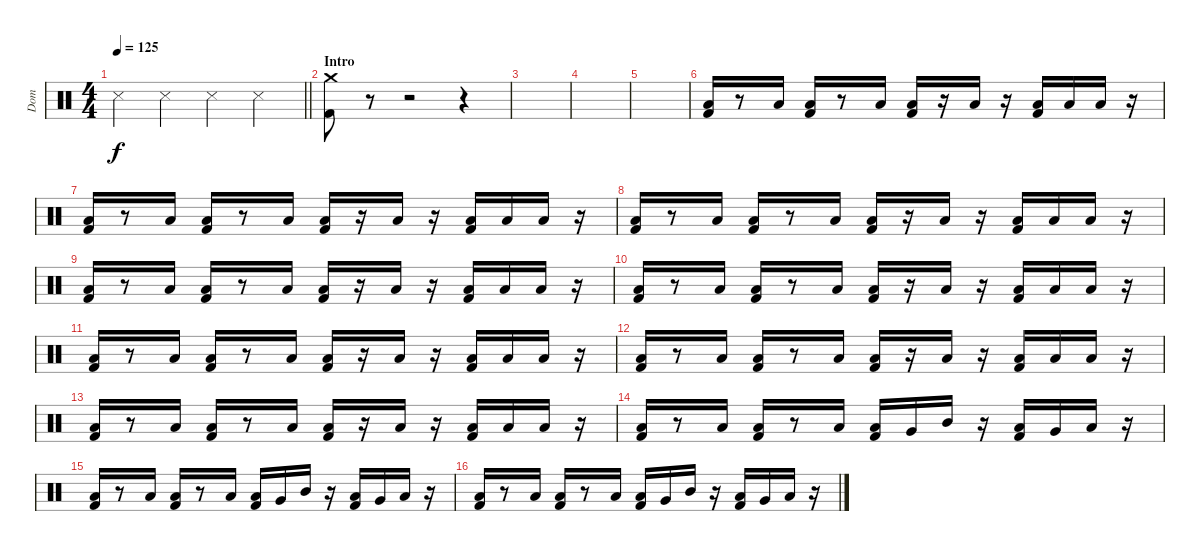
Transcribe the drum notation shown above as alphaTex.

\track ("Dom" "Dom") {instrument percussion}
\staff {score}
\articulation defaults
\ts (4 4)
\tempo 125
\clef neutral
\barLineRight lightlight
\ks c "Snare (side stick) 3".4{dy f} "Snare (side stick) 3".4 "Snare (side stick) 3".4 "Snare (side stick) 3".4
|
\section ("" "Intro")
("Crash medium (hit)" "Kick (hit) 2").8 r.8 r.2 r.4 |
|
|
|
("Low Floor Tom (hit)" "Kick (hit) 2").16 r.8 "Low Floor Tom (hit)".16 ("Low Floor Tom (hit)" "Kick (hit) 2").16 r.8 "Low Floor Tom (hit)".16 ("Low Floor Tom (hit)" "Kick (hit) 2").16 r.16 "Low Floor Tom (hit)".16 r.16 ("Low Floor Tom (hit)" "Kick (hit) 2").16 "Low Floor Tom (hit)".16 "Low Floor Tom (hit)".16 r.16 |
("Low Floor Tom (hit)" "Kick (hit) 2").16 r.8 "Low Floor Tom (hit)".16 ("Low Floor Tom (hit)" "Kick (hit) 2").16 r.8 "Low Floor Tom (hit)".16 ("Low Floor Tom (hit)" "Kick (hit) 2").16 r.16 "Low Floor Tom (hit)".16 r.16 ("Low Floor Tom (hit)" "Kick (hit) 2").16 "Low Floor Tom (hit)".16 "Low Floor Tom (hit)".16 r.16 |
("Low Floor Tom (hit)" "Kick (hit) 2").16 r.8 "Low Floor Tom (hit)".16 ("Low Floor Tom (hit)" "Kick (hit) 2").16 r.8 "Low Floor Tom (hit)".16 ("Low Floor Tom (hit)" "Kick (hit) 2").16 r.16 "Low Floor Tom (hit)".16 r.16 ("Low Floor Tom (hit)" "Kick (hit) 2").16 "Low Floor Tom (hit)".16 "Low Floor Tom (hit)".16 r.16 |
("Low Floor Tom (hit)" "Kick (hit) 2").16 r.8 "Low Floor Tom (hit)".16 ("Low Floor Tom (hit)" "Kick (hit) 2").16 r.8 "Low Floor Tom (hit)".16 ("Low Floor Tom (hit)" "Kick (hit) 2").16 r.16 "Low Floor Tom (hit)".16 r.16 ("Low Floor Tom (hit)" "Kick (hit) 2").16 "Low Floor Tom (hit)".16 "Low Floor Tom (hit)".16 r.16 |
("Low Floor Tom (hit)" "Kick (hit) 2").16 r.8 "Low Floor Tom (hit)".16 ("Low Floor Tom (hit)" "Kick (hit) 2").16 r.8 "Low Floor Tom (hit)".16 ("Low Floor Tom (hit)" "Kick (hit) 2").16 r.16 "Low Floor Tom (hit)".16 r.16 ("Low Floor Tom (hit)" "Kick (hit) 2").16 "Low Floor Tom (hit)".16 "Low Floor Tom (hit)".16 r.16 |
("Low Floor Tom (hit)" "Kick (hit) 2").16 r.8 "Low Floor Tom (hit)".16 ("Low Floor Tom (hit)" "Kick (hit) 2").16 r.8 "Low Floor Tom (hit)".16 ("Low Floor Tom (hit)" "Kick (hit) 2").16 r.16 "Low Floor Tom (hit)".16 r.16 ("Low Floor Tom (hit)" "Kick (hit) 2").16 "Low Floor Tom (hit)".16 "Low Floor Tom (hit)".16 r.16 |
("Low Floor Tom (hit)" "Kick (hit) 2").16 r.8 "Low Floor Tom (hit)".16 ("Low Floor Tom (hit)" "Kick (hit) 2").16 r.8 "Low Floor Tom (hit)".16 ("Low Floor Tom (hit)" "Kick (hit) 2").16 r.16 "Low Floor Tom (hit)".16 r.16 ("Low Floor Tom (hit)" "Kick (hit) 2").16 "Low Floor Tom (hit)".16 "Low Floor Tom (hit)".16 r.16 |
("Low Floor Tom (hit)" "Kick (hit) 2").16 r.8 "Low Floor Tom (hit)".16 ("Low Floor Tom (hit)" "Kick (hit) 2").16 r.8 "Low Floor Tom (hit)".16 ("Low Floor Tom (hit)" "Kick (hit) 2").16 r.16 "Low Floor Tom (hit)".16 r.16 ("Low Floor Tom (hit)" "Kick (hit) 2").16 "Low Floor Tom (hit)".16 "Low Floor Tom (hit)".16 r.16 |
("Low Floor Tom (hit)" "Kick (hit) 2").16 r.8 "Low Floor Tom (hit)".16 ("Low Floor Tom (hit)" "Kick (hit) 2").16 r.8 "Low Floor Tom (hit)".16 ("Low Floor Tom (hit)" "Kick (hit) 2").16 "Very Low Tom (hit)".16 "Mid Tom (hit)".16 r.16 ("Low Floor Tom (hit)" "Kick (hit) 2").16 "Very Low Tom (hit)".16 "Low Floor Tom (hit)".16 r.16 |
("Low Floor Tom (hit)" "Kick (hit) 2").16 r.8 "Low Floor Tom (hit)".16 ("Low Floor Tom (hit)" "Kick (hit) 2").16 r.8 "Low Floor Tom (hit)".16 ("Low Floor Tom (hit)" "Kick (hit) 2").16 "Very Low Tom (hit)".16 "Mid Tom (hit)".16 r.16 ("Low Floor Tom (hit)" "Kick (hit) 2").16 "Very Low Tom (hit)".16 "Low Floor Tom (hit)".16 r.16 |
("Low Floor Tom (hit)" "Kick (hit) 2").16 r.8 "Low Floor Tom (hit)".16 ("Low Floor Tom (hit)" "Kick (hit) 2").16 r.8 "Low Floor Tom (hit)".16 ("Low Floor Tom (hit)" "Kick (hit) 2").16 "Very Low Tom (hit)".16 "Mid Tom (hit)".16 r.16 ("Low Floor Tom (hit)" "Kick (hit) 2").16 "Very Low Tom (hit)".16 "Low Floor Tom (hit)".16 r.16
